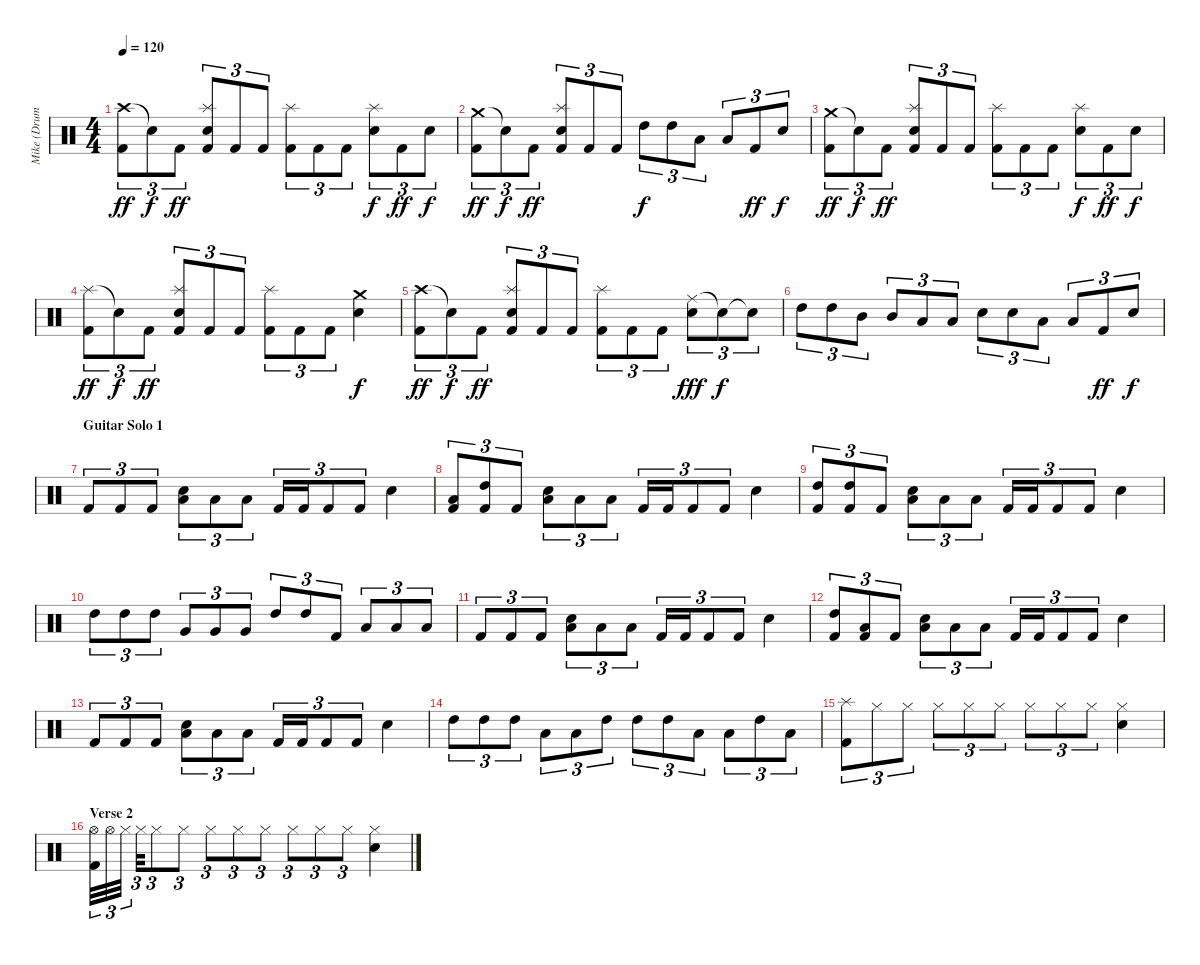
\track ("Mike (Drums)" "Mike (Drum") {instrument percussion}
\staff {score}
\articulation defaults
\ts (4 4)
\tempo 120
\clef neutral
\ks c
("Crash high (hit)" "Kick (hit) 2").8{tu (3 2) dy ff} "Snare (hit)"{t}.8{tu (3 2) dy f} "Kick (hit) 2".8{tu (3 2) dy ff} ("Splash (hit)" "Electric Snare (hit)" "Kick (hit) 2").8{tu (3 2)} "Kick (hit) 2".8{tu (3 2)} "Kick (hit) 2".8{tu (3 2)} ("Splash (hit)" "Kick (hit) 2").8{tu (3 2)} "Kick (hit) 2".8{tu (3 2)} "Kick (hit) 2".8{tu (3 2)} ("Splash (hit)" "Electric Snare (hit)").8{tu (3 2) dy f} "Kick (hit) 2".8{tu (3 2) dy ff} "Snare (hit) 2".8{tu (3 2) dy f} |
("Crash medium (hit)" "Kick (hit) 2").8{tu (3 2) dy ff} "Snare (hit)"{t}.8{tu (3 2) dy f} "Kick (hit) 2".8{tu (3 2) dy ff} ("Splash (hit)" "Electric Snare (hit)" "Kick (hit) 2").8{tu (3 2)} "Kick (hit) 2".8{tu (3 2)} "Kick (hit) 2".8{tu (3 2)} "High Tom (hit)".8{tu (3 2) dy f} "High Tom (hit)".8{tu (3 2)} "Low Tom (hit)".8{tu (3 2)} "Low Tom (hit)".8{tu (3 2)} "Kick (hit) 2".8{tu (3 2) dy ff} "Snare (hit) 2".8{tu (3 2) dy f} |
("Crash medium (hit)" "Kick (hit) 2").8{tu (3 2) dy ff} "Snare (hit)"{t}.8{tu (3 2) dy f} "Kick (hit) 2".8{tu (3 2) dy ff} ("Splash (hit)" "Electric Snare (hit)" "Kick (hit) 2").8{tu (3 2)} "Kick (hit) 2".8{tu (3 2)} "Kick (hit) 2".8{tu (3 2)} ("Splash (hit)" "Kick (hit) 2").8{tu (3 2)} "Kick (hit) 2".8{tu (3 2)} "Kick (hit) 2".8{tu (3 2)} ("Splash (hit)" "Electric Snare (hit)").8{tu (3 2) dy f} "Kick (hit) 2".8{tu (3 2) dy ff} "Snare (hit) 2".8{tu (3 2) dy f} |
("Splash (hit)" "Kick (hit) 2").8{tu (3 2) dy ff} "Snare (hit)"{t}.8{tu (3 2) dy f} "Kick (hit) 2".8{tu (3 2) dy ff} ("Splash (hit)" "Electric Snare (hit)" "Kick (hit) 2").8{tu (3 2)} "Kick (hit) 2".8{tu (3 2)} "Kick (hit) 2".8{tu (3 2)} ("Splash (hit)" "Kick (hit) 2").8{tu (3 2)} "Kick (hit) 2".8{tu (3 2)} "Kick (hit) 2".8{tu (3 2)} ("Crash medium (hit)" "Electric Snare (hit)").4{dy f} |
("Crash high (hit)" "Kick (hit) 2").8{tu (3 2) dy ff} "Snare (hit)"{t}.8{tu (3 2) dy f} "Kick (hit) 2".8{tu (3 2) dy ff} ("Splash (hit)" "Electric Snare (hit)" "Kick (hit) 2").8{tu (3 2)} "Kick (hit) 2".8{tu (3 2)} "Kick (hit) 2".8{tu (3 2)} ("Splash (hit)" "Kick (hit) 2").8{tu (3 2)} "Kick (hit) 2".8{tu (3 2)} "Kick (hit) 2".8{tu (3 2)} ("Ride (middle)" "Electric Snare (hit)").8{tu (3 2) dy fff} "Snare (hit)"{t}.8{tu (3 2) dy f} "Snare (hit)"{t}.8{tu (3 2)} |
"High Tom (hit)".8{tu (3 2)} "High Tom (hit)".8{tu (3 2)} "Mid Tom (hit)".8{tu (3 2)} "Mid Tom (hit)".8{tu (3 2)} "Low Tom (hit)".8{tu (3 2)} "Low Tom (hit)".8{tu (3 2)} "Electric Snare (hit)".8{tu (3 2)} "Electric Snare (hit)".8{tu (3 2)} "Low Tom (hit)".8{tu (3 2)} "Low Tom (hit)".8{tu (3 2)} "Kick (hit) 2".8{tu (3 2) dy ff} "Snare (hit) 2".8{tu (3 2) dy f} |
\section ("" "Guitar Solo 1 ")
"Kick (hit) 2".8{tu (3 2)} "Kick (hit) 2".8{tu (3 2)} "Kick (hit) 2".8{tu (3 2)} ("Electric Snare (hit)" "Low Floor Tom (hit)").8{tu (3 2)} "Low Tom (hit)".8{tu (3 2)} "Low Floor Tom (hit)".8{tu (3 2)} "Kick (hit) 2".16{tu (3 2)} "Kick (hit) 2".16{tu (3 2)} "Kick (hit) 2".8{tu (3 2)} "Kick (hit) 2".8{tu (3 2)} "Electric Snare (hit)".4 |
("Low Tom (hit)" "Kick (hit) 2").8{tu (3 2)} ("High Tom (hit)" "Kick (hit) 2").8{tu (3 2)} "Kick (hit) 2".8{tu (3 2)} ("Electric Snare (hit)" "Low Floor Tom (hit)").8{tu (3 2)} "Low Tom (hit)".8{tu (3 2)} "Low Floor Tom (hit)".8{tu (3 2)} "Kick (hit) 2".16{tu (3 2)} "Kick (hit) 2".16{tu (3 2)} "Kick (hit) 2".8{tu (3 2)} "Kick (hit) 2".8{tu (3 2)} "Electric Snare (hit)".4 |
("High Tom (hit)" "Kick (hit) 2").8{tu (3 2)} ("High Tom (hit)" "Kick (hit) 2").8{tu (3 2)} "Kick (hit) 2".8{tu (3 2)} ("Electric Snare (hit)" "Low Floor Tom (hit)").8{tu (3 2)} "Low Tom (hit)".8{tu (3 2)} "Low Floor Tom (hit)".8{tu (3 2)} "Kick (hit) 2".16{tu (3 2)} "Kick (hit) 2".16{tu (3 2)} "Kick (hit) 2".8{tu (3 2)} "Kick (hit) 2".8{tu (3 2)} "Electric Snare (hit)".4 |
"High Tom (hit)".8{tu (3 2)} "High Tom (hit)".8{tu (3 2)} "High Tom (hit)".8{tu (3 2)} "Very Low Tom (hit)".8{tu (3 2)} "Very Low Tom (hit)".8{tu (3 2)} "Very Low Tom (hit)".8{tu (3 2)} "High Tom (hit)".8{tu (3 2)} "High Tom (hit)".8{tu (3 2)} "Kick (hit) 2".8{tu (3 2)} "Low Tom (hit)".8{tu (3 2)} "Low Tom (hit)".8{tu (3 2)} "Low Tom (hit)".8{tu (3 2)} |
"Kick (hit) 2".8{tu (3 2)} "Kick (hit) 2".8{tu (3 2)} "Kick (hit) 2".8{tu (3 2)} ("Electric Snare (hit)" "Low Floor Tom (hit)").8{tu (3 2)} "Low Tom (hit)".8{tu (3 2)} "Low Floor Tom (hit)".8{tu (3 2)} "Kick (hit) 2".16{tu (3 2)} "Kick (hit) 2".16{tu (3 2)} "Kick (hit) 2".8{tu (3 2)} "Kick (hit) 2".8{tu (3 2)} "Electric Snare (hit)".4 |
("High Tom (hit)" "Kick (hit) 2").8{tu (3 2)} ("Low Tom (hit)" "Kick (hit) 2").8{tu (3 2)} "Kick (hit) 2".8{tu (3 2)} ("Electric Snare (hit)" "Low Floor Tom (hit)").8{tu (3 2)} "Low Tom (hit)".8{tu (3 2)} "Low Floor Tom (hit)".8{tu (3 2)} "Kick (hit) 2".16{tu (3 2)} "Kick (hit) 2".16{tu (3 2)} "Kick (hit) 2".8{tu (3 2)} "Kick (hit) 2".8{tu (3 2)} "Electric Snare (hit)".4 |
"Kick (hit) 2".8{tu (3 2)} "Kick (hit) 2".8{tu (3 2)} "Kick (hit) 2".8{tu (3 2)} ("Electric Snare (hit)" "Low Floor Tom (hit)").8{tu (3 2)} "Low Tom (hit)".8{tu (3 2)} "Low Floor Tom (hit)".8{tu (3 2)} "Kick (hit) 2".16{tu (3 2)} "Kick (hit) 2".16{tu (3 2)} "Kick (hit) 2".8{tu (3 2)} "Kick (hit) 2".8{tu (3 2)} "Electric Snare (hit)".4 |
"High Tom (hit)".8{tu (3 2)} "High Tom (hit)".8{tu (3 2)} "High Tom (hit)".8{tu (3 2)} "Low Floor Tom (hit)".8{tu (3 2)} "Low Floor Tom (hit)".8{tu (3 2)} "High Tom (hit)".8{tu (3 2)} "High Tom (hit)".8{tu (3 2)} "High Tom (hit)".8{tu (3 2)} "Low Floor Tom (hit)".8{tu (3 2)} "Low Floor Tom (hit)".8{tu (3 2)} "High Tom (hit)".8{tu (3 2)} "Low Tom (hit)".8{tu (3 2)} |
("Splash (hit)" "Kick (hit) 2").8{tu (3 2)} "Hi-Hat (closed)".8{tu (3 2)} "Hi-Hat (closed)".8{tu (3 2)} "Hi-Hat (closed)".8{tu (3 2)} "Hi-Hat (closed)".8{tu (3 2)} "Hi-Hat (closed)".8{tu (3 2)} "Hi-Hat (closed)".8{tu (3 2)} "Hi-Hat (closed)".8{tu (3 2)} "Hi-Hat (closed)".8{tu (3 2)} ("Hi-Hat (closed)" "Snare (hit) 2").4 |
\section ("" "Verse 2")
("Hi-Hat (open)" "Kick (hit) 2").32{tu (3 2)} "Hi-Hat (open)".32{tu (3 2)} "Hi-Hat (closed)".32{tu (3 2)} "Hi-Hat (closed)".32{tu (3 2)} "Hi-Hat (closed)".8{tu (3 2)} "Hi-Hat (closed)".8{tu (3 2)} "Hi-Hat (closed)".8{tu (3 2)} "Hi-Hat (closed)".8{tu (3 2)} "Hi-Hat (closed)".8{tu (3 2)} "Hi-Hat (closed)".8{tu (3 2)} "Hi-Hat (closed)".8{tu (3 2)} "Hi-Hat (closed)".8{tu (3 2)} ("Hi-Hat (closed)" "Snare (hit) 2").4
